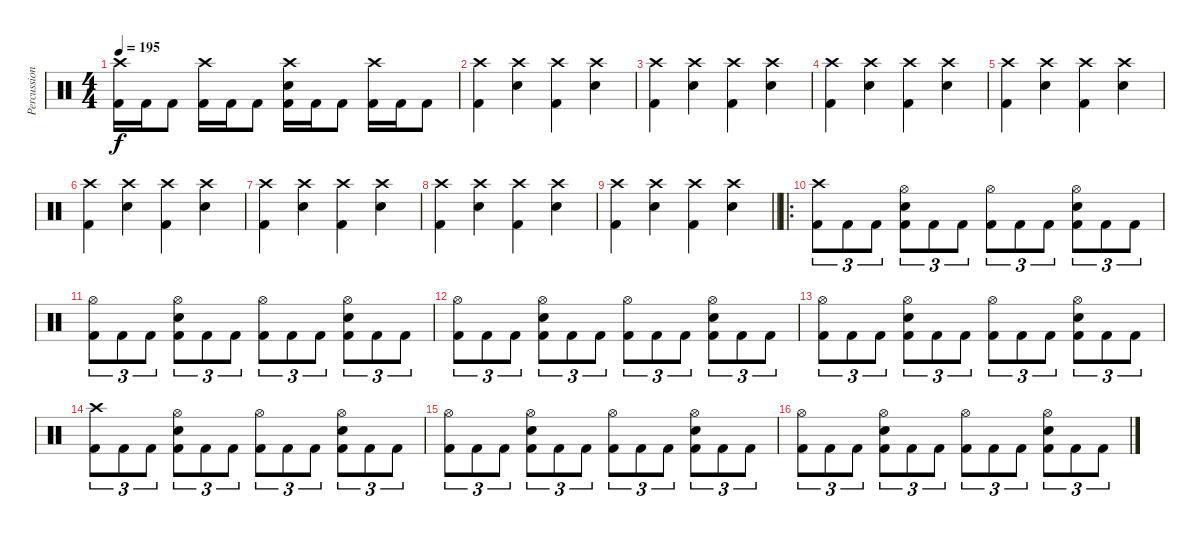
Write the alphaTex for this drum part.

\track ("Percussion" "Percussion") {instrument percussion}
\staff {score}
\articulation defaults
\ts (4 4)
\tempo 195
\clef neutral
\ks c
("Crash high (hit)" "Kick (hit) 2").16{dy f} "Kick (hit) 2".16 "Kick (hit) 2".8 ("Crash high (hit)" "Kick (hit) 2").16 "Kick (hit) 2".16 "Kick (hit) 2".8 ("Crash high (hit)" "Electric Snare (hit)" "Kick (hit) 2").16 "Kick (hit) 2".16 "Kick (hit) 2".8 ("Crash high (hit)" "Kick (hit) 2").16 "Kick (hit) 2".16 "Kick (hit) 2".8 |
("Crash high (hit)" "Kick (hit) 2").4 ("Crash high (hit)" "Electric Snare (hit)").4 ("Crash high (hit)" "Kick (hit) 2").4 ("Crash high (hit)" "Electric Snare (hit)").4 |
("Crash high (hit)" "Kick (hit) 2").4 ("Crash high (hit)" "Electric Snare (hit)").4 ("Crash high (hit)" "Kick (hit) 2").4 ("Crash high (hit)" "Electric Snare (hit)").4 |
("Crash high (hit)" "Kick (hit) 2").4 ("Crash high (hit)" "Electric Snare (hit)").4 ("Crash high (hit)" "Kick (hit) 2").4 ("Crash high (hit)" "Electric Snare (hit)").4 |
("Crash high (hit)" "Kick (hit) 2").4 ("Crash high (hit)" "Electric Snare (hit)").4 ("Crash high (hit)" "Kick (hit) 2").4 ("Crash high (hit)" "Electric Snare (hit)").4 |
("Crash high (hit)" "Kick (hit) 2").4 ("Crash high (hit)" "Electric Snare (hit)").4 ("Crash high (hit)" "Kick (hit) 2").4 ("Crash high (hit)" "Electric Snare (hit)").4 |
("Crash high (hit)" "Kick (hit) 2").4 ("Crash high (hit)" "Electric Snare (hit)").4 ("Crash high (hit)" "Kick (hit) 2").4 ("Crash high (hit)" "Electric Snare (hit)").4 |
("Crash high (hit)" "Kick (hit) 2").4 ("Crash high (hit)" "Electric Snare (hit)").4 ("Crash high (hit)" "Kick (hit) 2").4 ("Crash high (hit)" "Electric Snare (hit)").4 |
\barLineRight lightlight
("Crash high (hit)" "Kick (hit) 2").4 ("Crash high (hit)" "Electric Snare (hit)").4 ("Crash high (hit)" "Kick (hit) 2").4 ("Crash high (hit)" "Electric Snare (hit)").4 |
\ro
\section ("" "")
("Crash high (hit)" "Kick (hit) 2").8{tu (3 2)} "Kick (hit) 2".8{tu (3 2)} "Kick (hit) 2".8{tu (3 2)} ("Hi-Hat (open)" "Electric Snare (hit)" "Kick (hit) 2").8{tu (3 2)} "Kick (hit) 2".8{tu (3 2)} "Kick (hit) 2".8{tu (3 2)} ("Hi-Hat (open)" "Kick (hit) 2").8{tu (3 2)} "Kick (hit) 2".8{tu (3 2)} "Kick (hit) 2".8{tu (3 2)} ("Hi-Hat (open)" "Electric Snare (hit)" "Kick (hit) 2").8{tu (3 2)} "Kick (hit) 2".8{tu (3 2)} "Kick (hit) 2".8{tu (3 2)} |
("Hi-Hat (open)" "Kick (hit) 2").8{tu (3 2)} "Kick (hit) 2".8{tu (3 2)} "Kick (hit) 2".8{tu (3 2)} ("Hi-Hat (open)" "Electric Snare (hit)" "Kick (hit) 2").8{tu (3 2)} "Kick (hit) 2".8{tu (3 2)} "Kick (hit) 2".8{tu (3 2)} ("Hi-Hat (open)" "Kick (hit) 2").8{tu (3 2)} "Kick (hit) 2".8{tu (3 2)} "Kick (hit) 2".8{tu (3 2)} ("Hi-Hat (open)" "Electric Snare (hit)" "Kick (hit) 2").8{tu (3 2)} "Kick (hit) 2".8{tu (3 2)} "Kick (hit) 2".8{tu (3 2)} |
("Hi-Hat (open)" "Kick (hit) 2").8{tu (3 2)} "Kick (hit) 2".8{tu (3 2)} "Kick (hit) 2".8{tu (3 2)} ("Hi-Hat (open)" "Electric Snare (hit)" "Kick (hit) 2").8{tu (3 2)} "Kick (hit) 2".8{tu (3 2)} "Kick (hit) 2".8{tu (3 2)} ("Hi-Hat (open)" "Kick (hit) 2").8{tu (3 2)} "Kick (hit) 2".8{tu (3 2)} "Kick (hit) 2".8{tu (3 2)} ("Hi-Hat (open)" "Electric Snare (hit)" "Kick (hit) 2").8{tu (3 2)} "Kick (hit) 2".8{tu (3 2)} "Kick (hit) 2".8{tu (3 2)} |
("Hi-Hat (open)" "Kick (hit) 2").8{tu (3 2)} "Kick (hit) 2".8{tu (3 2)} "Kick (hit) 2".8{tu (3 2)} ("Hi-Hat (open)" "Electric Snare (hit)" "Kick (hit) 2").8{tu (3 2)} "Kick (hit) 2".8{tu (3 2)} "Kick (hit) 2".8{tu (3 2)} ("Hi-Hat (open)" "Kick (hit) 2").8{tu (3 2)} "Kick (hit) 2".8{tu (3 2)} "Kick (hit) 2".8{tu (3 2)} ("Hi-Hat (open)" "Electric Snare (hit)" "Kick (hit) 2").8{tu (3 2)} "Kick (hit) 2".8{tu (3 2)} "Kick (hit) 2".8{tu (3 2)} |
("Crash high (hit)" "Kick (hit) 2").8{tu (3 2)} "Kick (hit) 2".8{tu (3 2)} "Kick (hit) 2".8{tu (3 2)} ("Hi-Hat (open)" "Electric Snare (hit)" "Kick (hit) 2").8{tu (3 2)} "Kick (hit) 2".8{tu (3 2)} "Kick (hit) 2".8{tu (3 2)} ("Hi-Hat (open)" "Kick (hit) 2").8{tu (3 2)} "Kick (hit) 2".8{tu (3 2)} "Kick (hit) 2".8{tu (3 2)} ("Hi-Hat (open)" "Electric Snare (hit)" "Kick (hit) 2").8{tu (3 2)} "Kick (hit) 2".8{tu (3 2)} "Kick (hit) 2".8{tu (3 2)} |
("Hi-Hat (open)" "Kick (hit) 2").8{tu (3 2)} "Kick (hit) 2".8{tu (3 2)} "Kick (hit) 2".8{tu (3 2)} ("Hi-Hat (open)" "Electric Snare (hit)" "Kick (hit) 2").8{tu (3 2)} "Kick (hit) 2".8{tu (3 2)} "Kick (hit) 2".8{tu (3 2)} ("Hi-Hat (open)" "Kick (hit) 2").8{tu (3 2)} "Kick (hit) 2".8{tu (3 2)} "Kick (hit) 2".8{tu (3 2)} ("Hi-Hat (open)" "Electric Snare (hit)" "Kick (hit) 2").8{tu (3 2)} "Kick (hit) 2".8{tu (3 2)} "Kick (hit) 2".8{tu (3 2)} |
("Hi-Hat (open)" "Kick (hit) 2").8{tu (3 2)} "Kick (hit) 2".8{tu (3 2)} "Kick (hit) 2".8{tu (3 2)} ("Hi-Hat (open)" "Electric Snare (hit)" "Kick (hit) 2").8{tu (3 2)} "Kick (hit) 2".8{tu (3 2)} "Kick (hit) 2".8{tu (3 2)} ("Hi-Hat (open)" "Kick (hit) 2").8{tu (3 2)} "Kick (hit) 2".8{tu (3 2)} "Kick (hit) 2".8{tu (3 2)} ("Hi-Hat (open)" "Electric Snare (hit)" "Kick (hit) 2").8{tu (3 2)} "Kick (hit) 2".8{tu (3 2)} "Kick (hit) 2".8{tu (3 2)}
